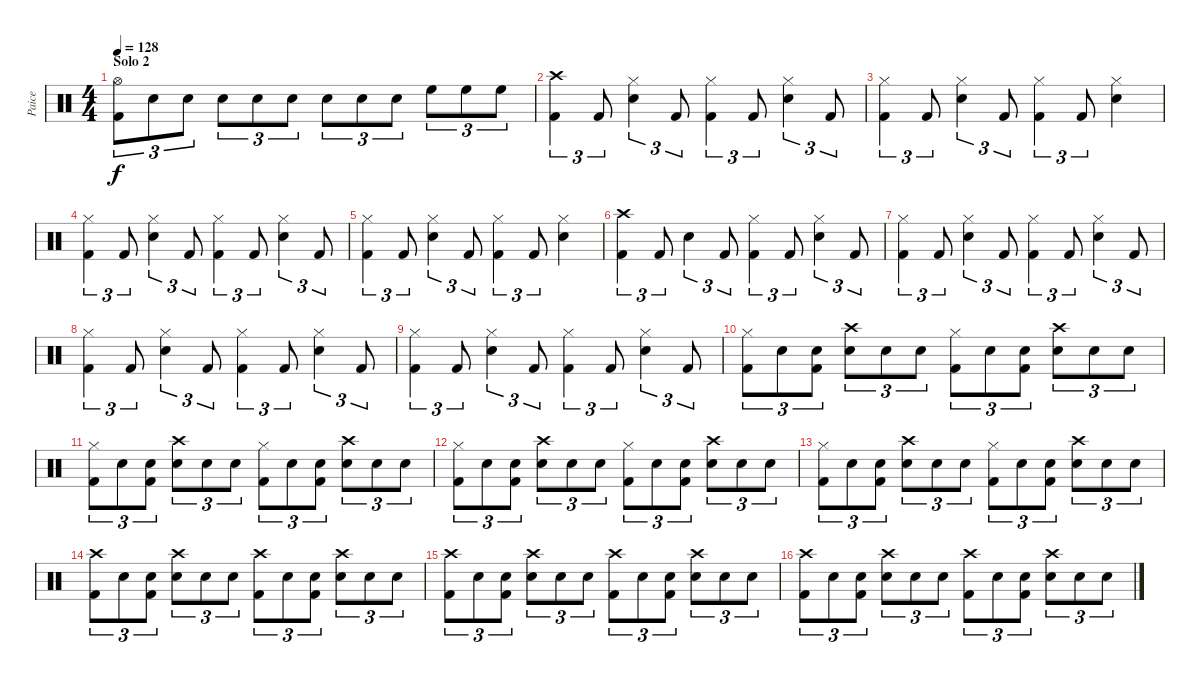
\track ("Paice" "Paice") {instrument percussion}
\staff {score}
\articulation defaults
\ts (4 4)
\section ("" "Solo 2")
\tempo 128
\clef neutral
\ks c
("Hi-Hat (open)" "Kick (hit) 2").8{tu (3 2) dy f} "Snare (hit) 2".8{tu (3 2)} "Snare (hit) 2".8{tu (3 2)} "Snare (hit) 2".8{tu (3 2)} "Snare (hit) 2".8{tu (3 2)} "Snare (hit) 2".8{tu (3 2)} "Snare (hit) 2".8{tu (3 2)} "Snare (hit) 2".8{tu (3 2)} "Snare (hit) 2".8{tu (3 2)} "High Floor Tom (hit)".8{tu (3 2)} "High Floor Tom (hit)".8{tu (3 2)} "High Floor Tom (hit)".8{tu (3 2)} |
("Crash high (hit)" "Kick (hit) 2").4{tu (3 2)} "Kick (hit) 2".8{tu (3 2)} ("Hi-Hat (closed)" "Snare (hit) 2").4{tu (3 2)} "Kick (hit) 2".8{tu (3 2)} ("Hi-Hat (closed)" "Kick (hit) 2").4{tu (3 2)} "Kick (hit) 2".8{tu (3 2)} ("Hi-Hat (closed)" "Snare (hit) 2").4{tu (3 2)} "Kick (hit) 2".8{tu (3 2)} |
("Hi-Hat (closed)" "Kick (hit) 2").4{tu (3 2)} "Kick (hit) 2".8{tu (3 2)} ("Hi-Hat (closed)" "Snare (hit) 2").4{tu (3 2)} "Kick (hit) 2".8{tu (3 2)} ("Hi-Hat (closed)" "Kick (hit) 2").4{tu (3 2)} "Kick (hit) 2".8{tu (3 2)} ("Hi-Hat (closed)" "Snare (hit) 2").4 |
("Hi-Hat (closed)" "Kick (hit) 2").4{tu (3 2)} "Kick (hit) 2".8{tu (3 2)} ("Hi-Hat (closed)" "Snare (hit) 2").4{tu (3 2)} "Kick (hit) 2".8{tu (3 2)} ("Hi-Hat (closed)" "Kick (hit) 2").4{tu (3 2)} "Kick (hit) 2".8{tu (3 2)} ("Hi-Hat (closed)" "Snare (hit) 2").4{tu (3 2)} "Kick (hit) 2".8{tu (3 2)} |
("Hi-Hat (closed)" "Kick (hit) 2").4{tu (3 2)} "Kick (hit) 2".8{tu (3 2)} ("Hi-Hat (closed)" "Snare (hit) 2").4{tu (3 2)} "Kick (hit) 2".8{tu (3 2)} ("Hi-Hat (closed)" "Kick (hit) 2").4{tu (3 2)} "Kick (hit) 2".8{tu (3 2)} ("Hi-Hat (closed)" "Snare (hit) 2").4 |
("Crash high (hit)" "Kick (hit) 2").4{tu (3 2)} "Kick (hit) 2".8{tu (3 2)} "Snare (hit) 2".4{tu (3 2)} "Kick (hit) 2".8{tu (3 2)} ("Hi-Hat (closed)" "Kick (hit) 2").4{tu (3 2)} "Kick (hit) 2".8{tu (3 2)} ("Hi-Hat (closed)" "Snare (hit) 2").4{tu (3 2)} "Kick (hit) 2".8{tu (3 2)} |
("Hi-Hat (closed)" "Kick (hit) 2").4{tu (3 2)} "Kick (hit) 2".8{tu (3 2)} ("Hi-Hat (closed)" "Snare (hit) 2").4{tu (3 2)} "Kick (hit) 2".8{tu (3 2)} ("Hi-Hat (closed)" "Kick (hit) 2").4{tu (3 2)} "Kick (hit) 2".8{tu (3 2)} ("Hi-Hat (closed)" "Snare (hit) 2").4{tu (3 2)} "Kick (hit) 2".8{tu (3 2)} |
("Hi-Hat (closed)" "Kick (hit) 2").4{tu (3 2)} "Kick (hit) 2".8{tu (3 2)} ("Hi-Hat (closed)" "Snare (hit) 2").4{tu (3 2)} "Kick (hit) 2".8{tu (3 2)} ("Hi-Hat (closed)" "Kick (hit) 2").4{tu (3 2)} "Kick (hit) 2".8{tu (3 2)} ("Hi-Hat (closed)" "Snare (hit) 2").4{tu (3 2)} "Kick (hit) 2".8{tu (3 2)} |
("Hi-Hat (closed)" "Kick (hit) 2").4{tu (3 2)} "Kick (hit) 2".8{tu (3 2)} ("Hi-Hat (closed)" "Snare (hit) 2").4{tu (3 2)} "Kick (hit) 2".8{tu (3 2)} ("Hi-Hat (closed)" "Kick (hit) 2").4{tu (3 2)} "Kick (hit) 2".8{tu (3 2)} ("Hi-Hat (closed)" "Snare (hit) 2").4{tu (3 2)} "Kick (hit) 2".8{tu (3 2)} |
("Hi-Hat (closed)" "Kick (hit) 2").8{tu (3 2)} "Snare (hit) 2".8{tu (3 2)} ("Snare (hit) 2" "Kick (hit) 2").8{tu (3 2)} ("Crash high (hit)" "Snare (hit) 2").8{tu (3 2)} "Snare (hit) 2".8{tu (3 2)} "Snare (hit) 2".8{tu (3 2)} ("Hi-Hat (closed)" "Kick (hit) 2").8{tu (3 2)} "Snare (hit) 2".8{tu (3 2)} ("Snare (hit) 2" "Kick (hit) 2").8{tu (3 2)} ("Crash high (hit)" "Snare (hit) 2").8{tu (3 2)} "Snare (hit) 2".8{tu (3 2)} "Snare (hit) 2".8{tu (3 2)} |
("Hi-Hat (closed)" "Kick (hit) 2").8{tu (3 2)} "Snare (hit) 2".8{tu (3 2)} ("Snare (hit) 2" "Kick (hit) 2").8{tu (3 2)} ("Crash high (hit)" "Snare (hit) 2").8{tu (3 2)} "Snare (hit) 2".8{tu (3 2)} "Snare (hit) 2".8{tu (3 2)} ("Hi-Hat (closed)" "Kick (hit) 2").8{tu (3 2)} "Snare (hit) 2".8{tu (3 2)} ("Snare (hit) 2" "Kick (hit) 2").8{tu (3 2)} ("Crash high (hit)" "Snare (hit) 2").8{tu (3 2)} "Snare (hit) 2".8{tu (3 2)} "Snare (hit) 2".8{tu (3 2)} |
("Hi-Hat (closed)" "Kick (hit) 2").8{tu (3 2)} "Snare (hit) 2".8{tu (3 2)} ("Snare (hit) 2" "Kick (hit) 2").8{tu (3 2)} ("Crash high (hit)" "Snare (hit) 2").8{tu (3 2)} "Snare (hit) 2".8{tu (3 2)} "Snare (hit) 2".8{tu (3 2)} ("Hi-Hat (closed)" "Kick (hit) 2").8{tu (3 2)} "Snare (hit) 2".8{tu (3 2)} ("Snare (hit) 2" "Kick (hit) 2").8{tu (3 2)} ("Crash high (hit)" "Snare (hit) 2").8{tu (3 2)} "Snare (hit) 2".8{tu (3 2)} "Snare (hit) 2".8{tu (3 2)} |
("Hi-Hat (closed)" "Kick (hit) 2").8{tu (3 2)} "Snare (hit) 2".8{tu (3 2)} ("Snare (hit) 2" "Kick (hit) 2").8{tu (3 2)} ("Crash high (hit)" "Snare (hit) 2").8{tu (3 2)} "Snare (hit) 2".8{tu (3 2)} "Snare (hit) 2".8{tu (3 2)} ("Hi-Hat (closed)" "Kick (hit) 2").8{tu (3 2)} "Snare (hit) 2".8{tu (3 2)} ("Snare (hit) 2" "Kick (hit) 2").8{tu (3 2)} ("Crash high (hit)" "Snare (hit) 2").8{tu (3 2)} "Snare (hit) 2".8{tu (3 2)} "Snare (hit) 2".8{tu (3 2)} |
("Crash high (hit)" "Kick (hit) 2").8{tu (3 2)} "Snare (hit) 2".8{tu (3 2)} ("Snare (hit) 2" "Kick (hit) 2").8{tu (3 2)} ("Crash high (hit)" "Snare (hit) 2").8{tu (3 2)} "Snare (hit) 2".8{tu (3 2)} "Snare (hit) 2".8{tu (3 2)} ("Crash high (hit)" "Kick (hit) 2").8{tu (3 2)} "Snare (hit) 2".8{tu (3 2)} ("Snare (hit) 2" "Kick (hit) 2").8{tu (3 2)} ("Crash high (hit)" "Snare (hit) 2").8{tu (3 2)} "Snare (hit) 2".8{tu (3 2)} "Snare (hit) 2".8{tu (3 2)} |
("Crash high (hit)" "Kick (hit) 2").8{tu (3 2)} "Snare (hit) 2".8{tu (3 2)} ("Snare (hit) 2" "Kick (hit) 2").8{tu (3 2)} ("Crash high (hit)" "Snare (hit) 2").8{tu (3 2)} "Snare (hit) 2".8{tu (3 2)} "Snare (hit) 2".8{tu (3 2)} ("Crash high (hit)" "Kick (hit) 2").8{tu (3 2)} "Snare (hit) 2".8{tu (3 2)} ("Snare (hit) 2" "Kick (hit) 2").8{tu (3 2)} ("Crash high (hit)" "Snare (hit) 2").8{tu (3 2)} "Snare (hit) 2".8{tu (3 2)} "Snare (hit) 2".8{tu (3 2)} |
("Crash high (hit)" "Kick (hit) 2").8{tu (3 2)} "Snare (hit) 2".8{tu (3 2)} ("Snare (hit) 2" "Kick (hit) 2").8{tu (3 2)} ("Crash high (hit)" "Snare (hit) 2").8{tu (3 2)} "Snare (hit) 2".8{tu (3 2)} "Snare (hit) 2".8{tu (3 2)} ("Crash high (hit)" "Kick (hit) 2").8{tu (3 2)} "Snare (hit) 2".8{tu (3 2)} ("Snare (hit) 2" "Kick (hit) 2").8{tu (3 2)} ("Crash high (hit)" "Snare (hit) 2").8{tu (3 2)} "Snare (hit) 2".8{tu (3 2)} "Snare (hit) 2".8{tu (3 2)}
